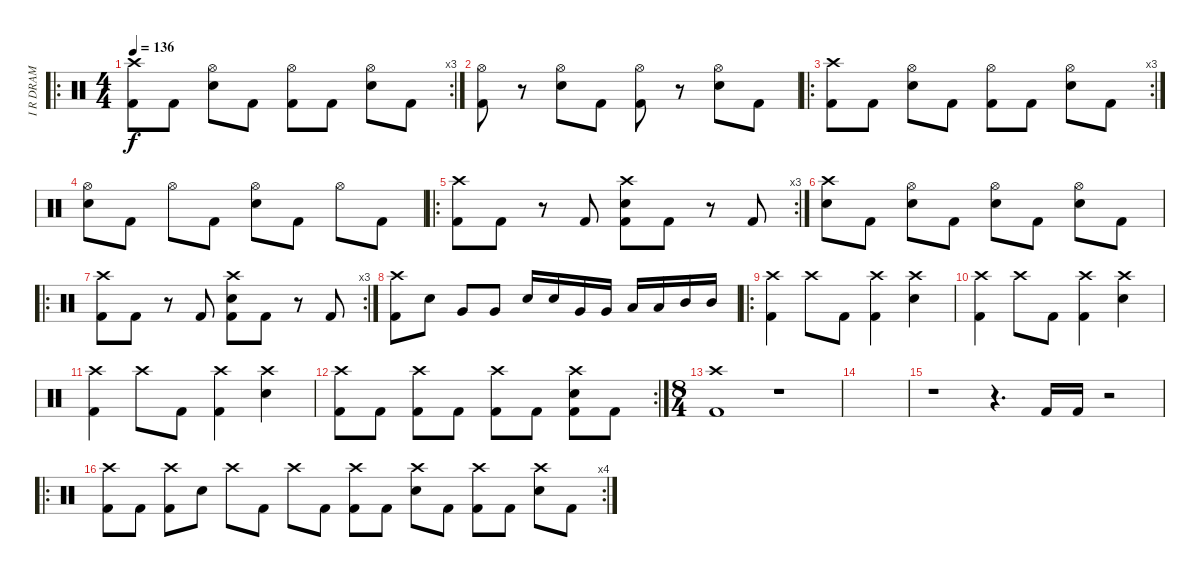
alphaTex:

\track ("I R DRAM" "I R DRAM") {instrument percussion}
\staff {score}
\articulation defaults
\ro
\rc 3
\ts (4 4)
\tempo 136
\clef neutral
\ks c
("Crash high (hit)" "Kick (hit) 2").8{dy f} "Kick (hit) 2".8 ("Hi-Hat (open)" "Electric Snare (hit)").8 "Kick (hit) 2".8 ("Hi-Hat (open)" "Kick (hit) 2").8 "Kick (hit) 2".8 ("Hi-Hat (open)" "Electric Snare (hit)").8 "Kick (hit) 2".8 |
("Hi-Hat (open)" "Kick (hit) 2").8 r.8 ("Hi-Hat (open)" "Electric Snare (hit)").8 "Kick (hit) 2".8 ("Hi-Hat (open)" "Kick (hit) 2").8 r.8 ("Hi-Hat (open)" "Electric Snare (hit)").8 "Kick (hit) 2".8 |
\ro
\rc 3
("Crash high (hit)" "Kick (hit) 2").8 "Kick (hit) 2".8 ("Hi-Hat (open)" "Electric Snare (hit)").8 "Kick (hit) 2".8 ("Hi-Hat (open)" "Kick (hit) 2").8 "Kick (hit) 2".8 ("Hi-Hat (open)" "Electric Snare (hit)").8 "Kick (hit) 2".8 |
("Hi-Hat (open)" "Electric Snare (hit)").8 "Kick (hit) 2".8 "Hi-Hat (open)".8 "Kick (hit) 2".8 ("Hi-Hat (open)" "Electric Snare (hit)").8 "Kick (hit) 2".8 "Hi-Hat (open)".8 "Kick (hit) 2".8 |
\ro
\rc 3
("Crash high (hit)" "Kick (hit) 2").8 "Kick (hit) 2".8 r.8 "Kick (hit) 2".8 ("Crash high (hit)" "Electric Snare (hit)" "Kick (hit) 2").8 "Kick (hit) 2".8 r.8 "Kick (hit) 2".8 |
("Crash high (hit)" "Electric Snare (hit)").8 "Kick (hit) 2".8 ("Hi-Hat (open)" "Electric Snare (hit)").8 "Kick (hit) 2".8 ("Hi-Hat (open)" "Electric Snare (hit)").8 "Kick (hit) 2".8 ("Hi-Hat (open)" "Electric Snare (hit)").8 "Kick (hit) 2".8 |
\ro
\rc 3
("Crash high (hit)" "Kick (hit) 2").8 "Kick (hit) 2".8 r.8 "Kick (hit) 2".8 ("Crash high (hit)" "Electric Snare (hit)" "Kick (hit) 2").8 "Kick (hit) 2".8 r.8 "Kick (hit) 2".8 |
("Crash high (hit)" "Kick (hit) 2").8 "Electric Snare (hit)".8 "Very Low Tom (hit)".8 "Very Low Tom (hit)".8 "Electric Snare (hit)".16 "Electric Snare (hit)".16 "Very Low Tom (hit)".16 "Very Low Tom (hit)".16 "Low Tom (hit)".16 "Low Tom (hit)".16 "Mid Tom (hit)".16 "Mid Tom (hit)".16 |
\ro
("Crash high (hit)" "Kick (hit) 2").4 "Crash high (hit)".8 "Kick (hit) 2".8 ("Crash high (hit)" "Kick (hit) 2").4 ("Crash high (hit)" "Electric Snare (hit)").4 |
("Crash high (hit)" "Kick (hit) 2").4 "Crash high (hit)".8 "Kick (hit) 2".8 ("Crash high (hit)" "Kick (hit) 2").4 ("Crash high (hit)" "Electric Snare (hit)").4 |
("Crash high (hit)" "Kick (hit) 2").4 "Crash high (hit)".8 "Kick (hit) 2".8 ("Crash high (hit)" "Kick (hit) 2").4 ("Crash high (hit)" "Electric Snare (hit)").4 |
\rc 2
("Crash high (hit)" "Kick (hit) 2").8 "Kick (hit) 2".8 ("Crash high (hit)" "Kick (hit) 2").8 "Kick (hit) 2".8 ("Crash high (hit)" "Kick (hit) 2").8 "Kick (hit) 2".8 ("Crash high (hit)" "Electric Snare (hit)" "Kick (hit) 2").8 "Kick (hit) 2".8 |
\ts (8 4)
("Crash high (hit)" "Kick (hit) 2").1 r.1 |
|
r.1 r.4{d} "Kick (hit) 2".16 "Kick (hit) 2".16 r.2 |
\ro
\rc 4
("Crash high (hit)" "Kick (hit) 2").8 "Kick (hit) 2".8 ("Crash high (hit)" "Kick (hit) 2").8 "Electric Snare (hit)".8 "Crash high (hit)".8 "Kick (hit) 2".8 "Crash high (hit)".8 "Kick (hit) 2".8 ("Crash high (hit)" "Kick (hit) 2").8 "Kick (hit) 2".8 ("Crash high (hit)" "Electric Snare (hit)").8 "Kick (hit) 2".8 ("Crash high (hit)" "Kick (hit) 2").8 "Kick (hit) 2".8 ("Crash high (hit)" "Electric Snare (hit)").8 "Kick (hit) 2".8
